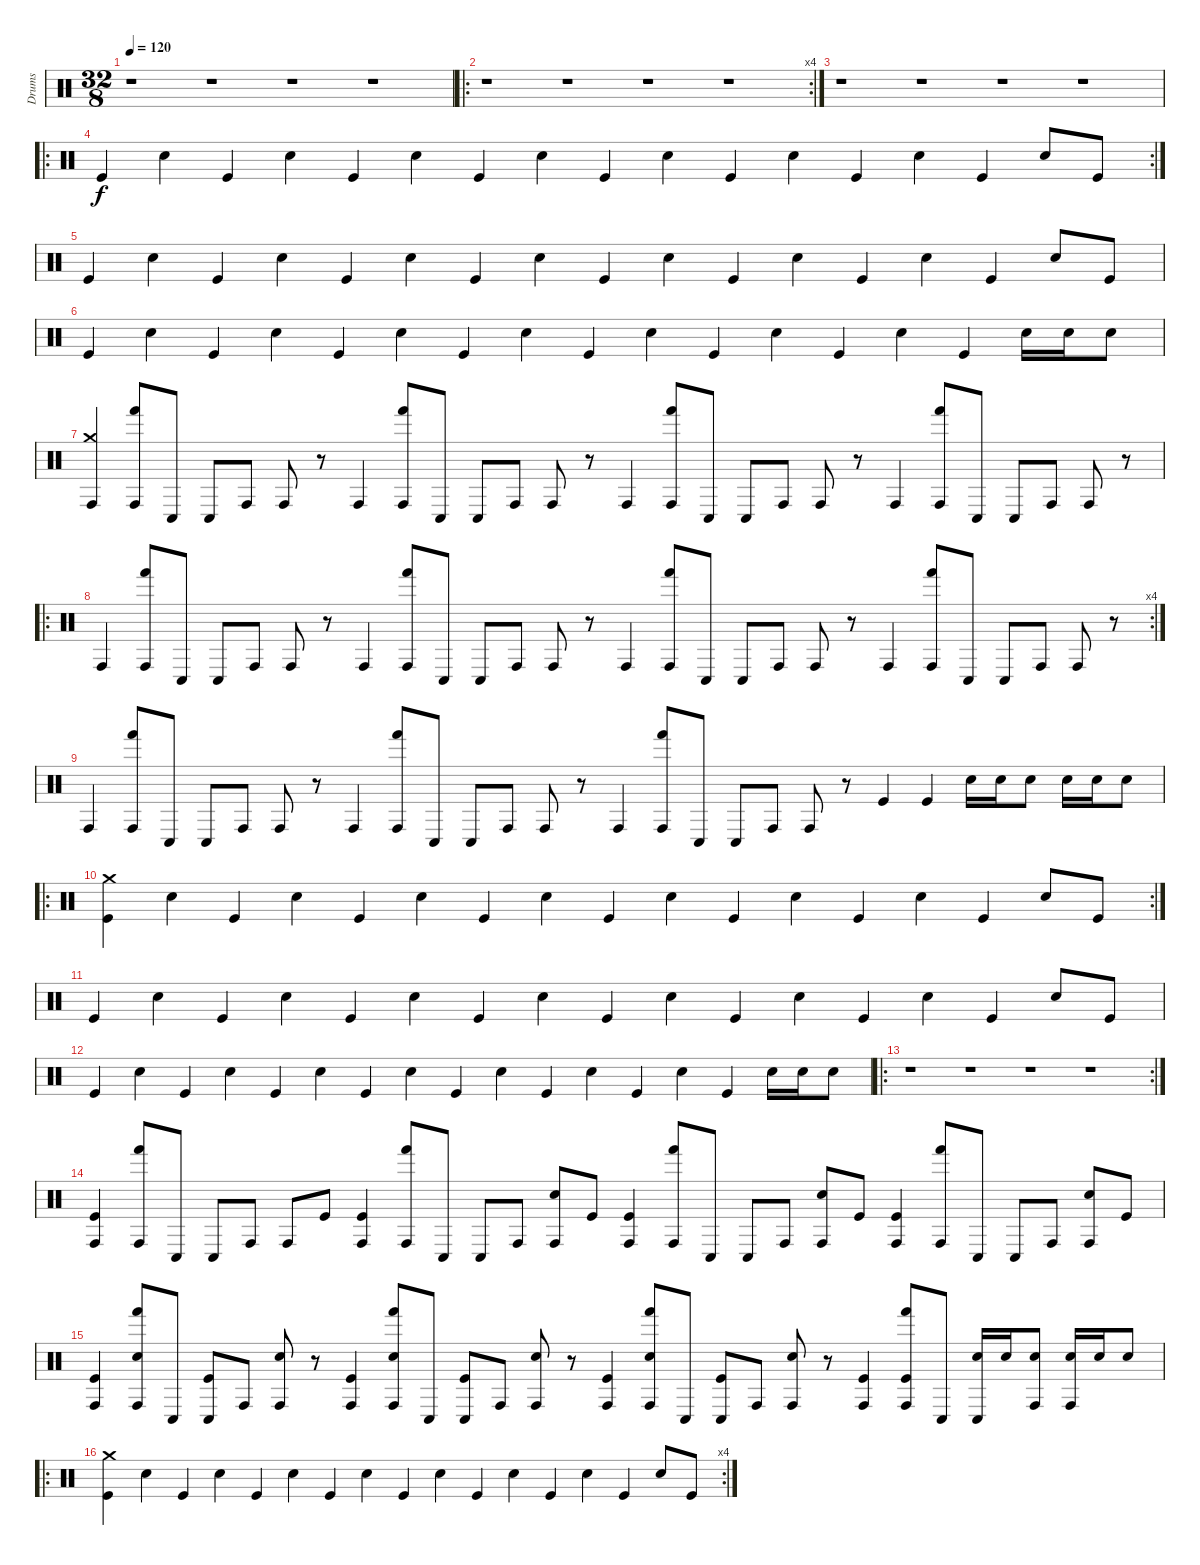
\track ("Drums" "Drums") {instrument percussion}
\staff {score}
\articulation defaults
\ts (32 8)
\tempo 120
\clef neutral
\ks c
r.1{dy f} r.1 r.1 r.1 |
\ro
\rc 4
r.1 r.1 r.1 r.1 |
r.1 r.1 r.1 r.1 |
\ro
\rc 2 "Kick (hit)".4 "Snare (hit) 2".4 "Kick (hit)".4 "Snare (hit) 2".4 "Kick (hit)".4 "Snare (hit) 2".4 "Kick (hit)".4 "Snare (hit) 2".4 "Kick (hit)".4 "Snare (hit) 2".4 "Kick (hit)".4 "Snare (hit) 2".4 "Kick (hit)".4 "Snare (hit) 2".4 "Kick (hit)".4 "Snare (hit) 2".8 "Kick (hit)".8
|
"Kick (hit)".4 "Snare (hit) 2".4 "Kick (hit)".4 "Snare (hit) 2".4 "Kick (hit)".4 "Snare (hit) 2".4 "Kick (hit)".4 "Snare (hit) 2".4 "Kick (hit)".4 "Snare (hit) 2".4 "Kick (hit)".4 "Snare (hit) 2".4 "Kick (hit)".4 "Snare (hit) 2".4 "Kick (hit)".4 "Snare (hit) 2".8 "Kick (hit)".8 |
"Kick (hit)".4 "Snare (hit) 2".4 "Kick (hit)".4 "Snare (hit) 2".4 "Kick (hit)".4 "Snare (hit) 2".4 "Kick (hit)".4 "Snare (hit) 2".4 "Kick (hit)".4 "Snare (hit) 2".4 "Kick (hit)".4 "Snare (hit) 2".4 "Kick (hit)".4 "Snare (hit) 2".4 "Kick (hit)".4 "Snare (hit) 2".16 "Snare (hit) 2".16 "Snare (hit) 2".8 |
("Conga high (hit)" "Crash medium (hit)").4 ("Conga high (hit)" "Hand (hit)").8 "Conga low (hit)".8 "Conga low (hit)".8 "Conga high (hit)".8 "Conga high (hit)".8 r.8 "Conga high (hit)".4 ("Conga high (hit)" "Hand (hit)").8 "Conga low (hit)".8 "Conga low (hit)".8 "Conga high (hit)".8 "Conga high (hit)".8 r.8 "Conga high (hit)".4 ("Conga high (hit)" "Hand (hit)").8 "Conga low (hit)".8 "Conga low (hit)".8 "Conga high (hit)".8 "Conga high (hit)".8 r.8 "Conga high (hit)".4 ("Conga high (hit)" "Hand (hit)").8 "Conga low (hit)".8 "Conga low (hit)".8 "Conga high (hit)".8 "Conga high (hit)".8 r.8 |
\ro
\rc 4 "Conga high (hit)".4
("Conga high (hit)" "Hand (hit)").8 "Conga low (hit)".8 "Conga low (hit)".8 "Conga high (hit)".8 "Conga high (hit)".8 r.8 "Conga high (hit)".4 ("Conga high (hit)" "Hand (hit)").8 "Conga low (hit)".8 "Conga low (hit)".8 "Conga high (hit)".8 "Conga high (hit)".8 r.8 "Conga high (hit)".4 ("Conga high (hit)" "Hand (hit)").8 "Conga low (hit)".8 "Conga low (hit)".8 "Conga high (hit)".8 "Conga high (hit)".8 r.8 "Conga high (hit)".4 ("Conga high (hit)" "Hand (hit)").8 "Conga low (hit)".8 "Conga low (hit)".8 "Conga high (hit)".8 "Conga high (hit)".8 r.8 |
"Conga high (hit)".4 ("Conga high (hit)" "Hand (hit)").8 "Conga low (hit)".8 "Conga low (hit)".8 "Conga high (hit)".8 "Conga high (hit)".8 r.8 "Conga high (hit)".4 ("Conga high (hit)" "Hand (hit)").8 "Conga low (hit)".8 "Conga low (hit)".8 "Conga high (hit)".8 "Conga high (hit)".8 r.8 "Conga high (hit)".4 ("Conga high (hit)" "Hand (hit)").8 "Conga low (hit)".8 "Conga low (hit)".8 "Conga high (hit)".8 "Conga high (hit)".8 r.8 "Kick (hit)".4 "Kick (hit)".4 "Snare (hit) 2".16 "Snare (hit) 2".16 "Snare (hit) 2".8 "Snare (hit) 2".16 "Snare (hit) 2".16 "Snare (hit) 2".8 |
\ro
\rc 2
("Kick (hit)" "Crash medium (hit)").4 "Snare (hit) 2".4 "Kick (hit)".4 "Snare (hit) 2".4 "Kick (hit)".4 "Snare (hit) 2".4 "Kick (hit)".4 "Snare (hit) 2".4 "Kick (hit)".4 "Snare (hit) 2".4 "Kick (hit)".4 "Snare (hit) 2".4 "Kick (hit)".4 "Snare (hit) 2".4 "Kick (hit)".4 "Snare (hit) 2".8 "Kick (hit)".8 |
"Kick (hit)".4 "Snare (hit) 2".4 "Kick (hit)".4 "Snare (hit) 2".4 "Kick (hit)".4 "Snare (hit) 2".4 "Kick (hit)".4 "Snare (hit) 2".4 "Kick (hit)".4 "Snare (hit) 2".4 "Kick (hit)".4 "Snare (hit) 2".4 "Kick (hit)".4 "Snare (hit) 2".4 "Kick (hit)".4 "Snare (hit) 2".8 "Kick (hit)".8 |
"Kick (hit)".4 "Snare (hit) 2".4 "Kick (hit)".4 "Snare (hit) 2".4 "Kick (hit)".4 "Snare (hit) 2".4 "Kick (hit)".4 "Snare (hit) 2".4 "Kick (hit)".4 "Snare (hit) 2".4 "Kick (hit)".4 "Snare (hit) 2".4 "Kick (hit)".4 "Snare (hit) 2".4 "Kick (hit)".4 "Snare (hit) 2".16 "Snare (hit) 2".16 "Snare (hit) 2".8 |
\ro
\rc 2
r.1 r.1 r.1 r.1 |
("Conga high (hit)" "Kick (hit)").4 ("Conga high (hit)" "Hand (hit)").8 "Conga low (hit)".8 "Conga low (hit)".8 "Conga high (hit)".8 "Conga high (hit)".8 "Kick (hit)".8 ("Conga high (hit)" "Kick (hit)").4 ("Conga high (hit)" "Hand (hit)").8 "Conga low (hit)".8 "Conga low (hit)".8 "Conga high (hit)".8 ("Conga high (hit)" "Snare (hit) 2").8 "Kick (hit)".8 ("Conga high (hit)" "Kick (hit)").4 ("Conga high (hit)" "Hand (hit)").8 "Conga low (hit)".8 "Conga low (hit)".8 "Conga high (hit)".8 ("Conga high (hit)" "Snare (hit) 2").8 "Kick (hit)".8 ("Conga high (hit)" "Kick (hit)").4 ("Conga high (hit)" "Hand (hit)").8 "Conga low (hit)".8 "Conga low (hit)".8 "Conga high (hit)".8 ("Conga high (hit)" "Snare (hit) 2").8 "Kick (hit)".8 |
("Conga high (hit)" "Kick (hit)").4 ("Conga high (hit)" "Hand (hit)" "Snare (hit) 2").8 "Conga low (hit)".8 ("Conga low (hit)" "Kick (hit)").8 "Conga high (hit)".8 ("Conga high (hit)" "Snare (hit) 2").8 r.8 ("Conga high (hit)" "Kick (hit)").4 ("Conga high (hit)" "Hand (hit)" "Snare (hit) 2").8 "Conga low (hit)".8 ("Conga low (hit)" "Kick (hit)").8 "Conga high (hit)".8 ("Conga high (hit)" "Snare (hit) 2").8 r.8 ("Conga high (hit)" "Kick (hit)").4 ("Conga high (hit)" "Hand (hit)" "Snare (hit) 2").8 "Conga low (hit)".8 ("Conga low (hit)" "Kick (hit)").8 "Conga high (hit)".8 ("Conga high (hit)" "Snare (hit) 2").8 r.8 ("Conga high (hit)" "Kick (hit)").4 ("Conga high (hit)" "Hand (hit)" "Kick (hit)").8 "Conga low (hit)".8 ("Conga low (hit)" "Snare (hit) 2").16 "Snare (hit) 2".16 ("Conga high (hit)" "Snare (hit) 2").8 ("Conga high (hit)" "Snare (hit) 2").16 "Snare (hit) 2".16 "Snare (hit) 2".8 |
\ro
\rc 4
("Kick (hit)" "Crash medium (hit)").4 "Snare (hit) 2".4 "Kick (hit)".4 "Snare (hit) 2".4 "Kick (hit)".4 "Snare (hit) 2".4 "Kick (hit)".4 "Snare (hit) 2".4 "Kick (hit)".4 "Snare (hit) 2".4 "Kick (hit)".4 "Snare (hit) 2".4 "Kick (hit)".4 "Snare (hit) 2".4 "Kick (hit)".4 "Snare (hit) 2".8 "Kick (hit)".8
